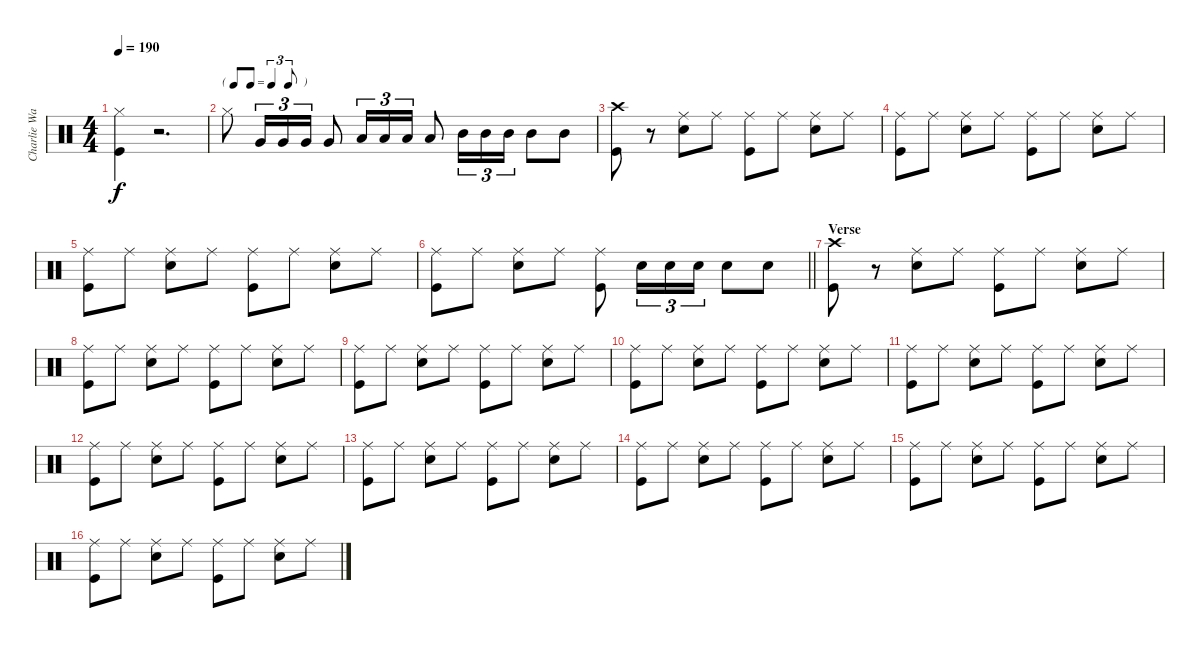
\track ("Charlie Watts" "Charlie Wa") {instrument percussion}
\staff {score}
\articulation defaults
\ts (4 4)
\tempo 190
\clef neutral
\ks c
("Hi-Hat (closed)" "Kick (hit)").4{dy f} r.2{d} |
\tf triplet8th "Hi-Hat (closed)".8 "Very Low Tom (hit)".16{tu (3 2)} "Very Low Tom (hit)".16{tu (3 2)} "Very Low Tom (hit)".16{tu (3 2)} "Very Low Tom (hit)".8 "Low Tom (hit)".16{tu (3 2)} "Low Tom (hit)".16{tu (3 2)} "Low Tom (hit)".16{tu (3 2)} "Low Tom (hit)".8 "Mid Tom (hit)".16{tu (3 2)} "Mid Tom (hit)".16{tu (3 2)} "Mid Tom (hit)".16{tu (3 2)} "Mid Tom (hit)".8 "Mid Tom (hit)".8
|
("Crash high (hit)" "Kick (hit)").8 r.8 ("Ride (middle)" "Snare (hit) 2").8 "Ride (middle)".8 ("Ride (middle)" "Kick (hit)").8 "Ride (middle)".8 ("Ride (middle)" "Snare (hit) 2").8 "Ride (middle)".8 |
("Ride (middle)" "Kick (hit)").8 "Ride (middle)".8 ("Ride (middle)" "Snare (hit) 2").8 "Ride (middle)".8 ("Ride (middle)" "Kick (hit)").8 "Ride (middle)".8 ("Ride (middle)" "Snare (hit) 2").8 "Ride (middle)".8 |
("Ride (middle)" "Kick (hit)").8 "Ride (middle)".8 ("Ride (middle)" "Snare (hit) 2").8 "Ride (middle)".8 ("Ride (middle)" "Kick (hit)").8 "Ride (middle)".8 ("Ride (middle)" "Snare (hit) 2").8 "Ride (middle)".8 |
\barLineRight lightlight
("Ride (middle)" "Kick (hit)").8 "Ride (middle)".8 ("Ride (middle)" "Snare (hit) 2").8 "Ride (middle)".8 ("Ride (middle)" "Kick (hit)").8 "Snare (hit) 2".16{tu (3 2)} "Snare (hit) 2".16{tu (3 2)} "Snare (hit) 2".16{tu (3 2)} "Snare (hit) 2".8 "Snare (hit) 2".8 |
\section ("" "Verse")
("Crash high (hit)" "Kick (hit)").8 r.8 ("Ride (middle)" "Snare (hit) 2").8 "Ride (middle)".8 ("Ride (middle)" "Kick (hit)").8 "Ride (middle)".8 ("Ride (middle)" "Snare (hit) 2").8 "Ride (middle)".8 |
("Ride (middle)" "Kick (hit)").8 "Ride (middle)".8 ("Ride (middle)" "Snare (hit) 2").8 "Ride (middle)".8 ("Ride (middle)" "Kick (hit)").8 "Ride (middle)".8 ("Ride (middle)" "Snare (hit) 2").8 "Ride (middle)".8 |
("Ride (middle)" "Kick (hit)").8 "Ride (middle)".8 ("Ride (middle)" "Snare (hit) 2").8 "Ride (middle)".8 ("Ride (middle)" "Kick (hit)").8 "Ride (middle)".8 ("Ride (middle)" "Snare (hit) 2").8 "Ride (middle)".8 |
("Ride (middle)" "Kick (hit)").8 "Ride (middle)".8 ("Ride (middle)" "Snare (hit) 2").8 "Ride (middle)".8 ("Ride (middle)" "Kick (hit)").8 "Ride (middle)".8 ("Ride (middle)" "Snare (hit) 2").8 "Ride (middle)".8 |
("Ride (middle)" "Kick (hit)").8 "Ride (middle)".8 ("Ride (middle)" "Snare (hit) 2").8 "Ride (middle)".8 ("Ride (middle)" "Kick (hit)").8 "Ride (middle)".8 ("Ride (middle)" "Snare (hit) 2").8 "Ride (middle)".8 |
("Ride (middle)" "Kick (hit)").8 "Ride (middle)".8 ("Ride (middle)" "Snare (hit) 2").8 "Ride (middle)".8 ("Ride (middle)" "Kick (hit)").8 "Ride (middle)".8 ("Ride (middle)" "Snare (hit) 2").8 "Ride (middle)".8 |
("Ride (middle)" "Kick (hit)").8 "Ride (middle)".8 ("Ride (middle)" "Snare (hit) 2").8 "Ride (middle)".8 ("Ride (middle)" "Kick (hit)").8 "Ride (middle)".8 ("Ride (middle)" "Snare (hit) 2").8 "Ride (middle)".8 |
("Ride (middle)" "Kick (hit)").8 "Ride (middle)".8 ("Ride (middle)" "Snare (hit) 2").8 "Ride (middle)".8 ("Ride (middle)" "Kick (hit)").8 "Ride (middle)".8 ("Ride (middle)" "Snare (hit) 2").8 "Ride (middle)".8 |
("Ride (middle)" "Kick (hit)").8 "Ride (middle)".8 ("Ride (middle)" "Snare (hit) 2").8 "Ride (middle)".8 ("Ride (middle)" "Kick (hit)").8 "Ride (middle)".8 ("Ride (middle)" "Snare (hit) 2").8 "Ride (middle)".8 |
("Ride (middle)" "Kick (hit)").8 "Ride (middle)".8 ("Ride (middle)" "Snare (hit) 2").8 "Ride (middle)".8 ("Ride (middle)" "Kick (hit)").8 "Ride (middle)".8 ("Ride (middle)" "Snare (hit) 2").8 "Ride (middle)".8
